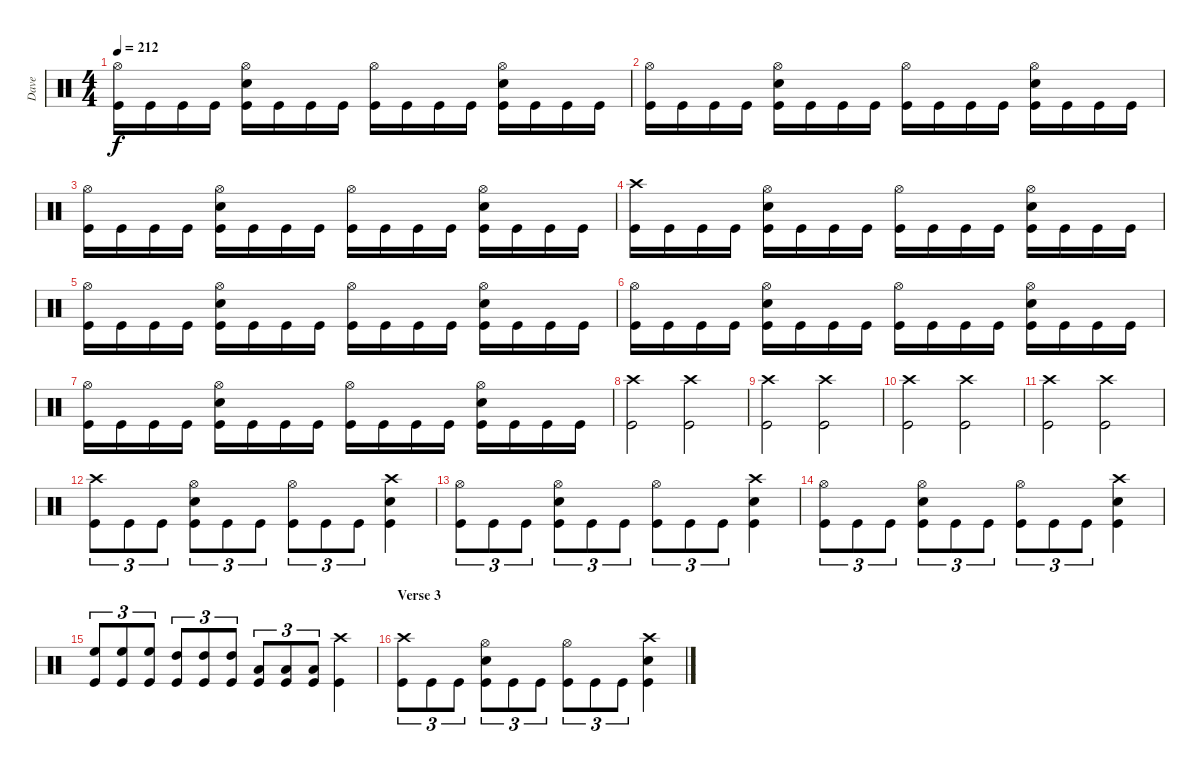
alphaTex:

\track ("Dave" "Dave") {instrument percussion}
\staff {score}
\articulation defaults
\ts (4 4)
\tempo 212
\clef neutral
\ks c
("Hi-Hat (open)" "Kick (hit)").16{dy f} "Kick (hit)".16 "Kick (hit)".16 "Kick (hit)".16 ("Hi-Hat (open)" "Snare (hit) 2" "Kick (hit)").16 "Kick (hit)".16 "Kick (hit)".16 "Kick (hit)".16 ("Hi-Hat (open)" "Kick (hit)").16 "Kick (hit)".16 "Kick (hit)".16 "Kick (hit)".16 ("Hi-Hat (open)" "Snare (hit) 2" "Kick (hit)").16 "Kick (hit)".16 "Kick (hit)".16 "Kick (hit)".16 |
("Hi-Hat (open)" "Kick (hit)").16 "Kick (hit)".16 "Kick (hit)".16 "Kick (hit)".16 ("Hi-Hat (open)" "Snare (hit) 2" "Kick (hit)").16 "Kick (hit)".16 "Kick (hit)".16 "Kick (hit)".16 ("Hi-Hat (open)" "Kick (hit)").16 "Kick (hit)".16 "Kick (hit)".16 "Kick (hit)".16 ("Hi-Hat (open)" "Snare (hit) 2" "Kick (hit)").16 "Kick (hit)".16 "Kick (hit)".16 "Kick (hit)".16 |
("Hi-Hat (open)" "Kick (hit)").16 "Kick (hit)".16 "Kick (hit)".16 "Kick (hit)".16 ("Hi-Hat (open)" "Snare (hit) 2" "Kick (hit)").16 "Kick (hit)".16 "Kick (hit)".16 "Kick (hit)".16 ("Hi-Hat (open)" "Kick (hit)").16 "Kick (hit)".16 "Kick (hit)".16 "Kick (hit)".16 ("Hi-Hat (open)" "Snare (hit) 2" "Kick (hit)").16 "Kick (hit)".16 "Kick (hit)".16 "Kick (hit)".16 |
("Crash high (hit)" "Kick (hit)").16 "Kick (hit)".16 "Kick (hit)".16 "Kick (hit)".16 ("Hi-Hat (open)" "Snare (hit) 2" "Kick (hit)").16 "Kick (hit)".16 "Kick (hit)".16 "Kick (hit)".16 ("Hi-Hat (open)" "Kick (hit)").16 "Kick (hit)".16 "Kick (hit)".16 "Kick (hit)".16 ("Hi-Hat (open)" "Snare (hit) 2" "Kick (hit)").16 "Kick (hit)".16 "Kick (hit)".16 "Kick (hit)".16 |
("Hi-Hat (open)" "Kick (hit)").16 "Kick (hit)".16 "Kick (hit)".16 "Kick (hit)".16 ("Hi-Hat (open)" "Snare (hit) 2" "Kick (hit)").16 "Kick (hit)".16 "Kick (hit)".16 "Kick (hit)".16 ("Hi-Hat (open)" "Kick (hit)").16 "Kick (hit)".16 "Kick (hit)".16 "Kick (hit)".16 ("Hi-Hat (open)" "Snare (hit) 2" "Kick (hit)").16 "Kick (hit)".16 "Kick (hit)".16 "Kick (hit)".16 |
("Hi-Hat (open)" "Kick (hit)").16 "Kick (hit)".16 "Kick (hit)".16 "Kick (hit)".16 ("Hi-Hat (open)" "Snare (hit) 2" "Kick (hit)").16 "Kick (hit)".16 "Kick (hit)".16 "Kick (hit)".16 ("Hi-Hat (open)" "Kick (hit)").16 "Kick (hit)".16 "Kick (hit)".16 "Kick (hit)".16 ("Hi-Hat (open)" "Snare (hit) 2" "Kick (hit)").16 "Kick (hit)".16 "Kick (hit)".16 "Kick (hit)".16 |
("Hi-Hat (open)" "Kick (hit)").16 "Kick (hit)".16 "Kick (hit)".16 "Kick (hit)".16 ("Hi-Hat (open)" "Snare (hit) 2" "Kick (hit)").16 "Kick (hit)".16 "Kick (hit)".16 "Kick (hit)".16 ("Hi-Hat (open)" "Kick (hit)").16 "Kick (hit)".16 "Kick (hit)".16 "Kick (hit)".16 ("Hi-Hat (open)" "Snare (hit) 2" "Kick (hit)").16 "Kick (hit)".16 "Kick (hit)".16 "Kick (hit)".16 |
("Crash high (hit)" "Kick (hit)").2 ("Crash high (hit)" "Kick (hit)").2 |
("Crash high (hit)" "Kick (hit)").2 ("Crash high (hit)" "Kick (hit)").2 |
("Crash high (hit)" "Kick (hit)").2 ("Crash high (hit)" "Kick (hit)").2 |
("Crash high (hit)" "Kick (hit)").2 ("Crash high (hit)" "Kick (hit)").2 |
("Crash high (hit)" "Kick (hit)").8{tu (3 2)} "Kick (hit)".8{tu (3 2)} "Kick (hit)".8{tu (3 2)} ("Hi-Hat (open)" "Snare (hit) 2" "Kick (hit)").8{tu (3 2)} "Kick (hit)".8{tu (3 2)} "Kick (hit)".8{tu (3 2)} ("Hi-Hat (open)" "Kick (hit)").8{tu (3 2)} "Kick (hit)".8{tu (3 2)} "Kick (hit)".8{tu (3 2)} ("Crash high (hit)" "Snare (hit) 2" "Kick (hit)").4 |
("Hi-Hat (open)" "Kick (hit)").8{tu (3 2)} "Kick (hit)".8{tu (3 2)} "Kick (hit)".8{tu (3 2)} ("Hi-Hat (open)" "Snare (hit) 2" "Kick (hit)").8{tu (3 2)} "Kick (hit)".8{tu (3 2)} "Kick (hit)".8{tu (3 2)} ("Hi-Hat (open)" "Kick (hit)").8{tu (3 2)} "Kick (hit)".8{tu (3 2)} "Kick (hit)".8{tu (3 2)} ("Crash high (hit)" "Snare (hit) 2" "Kick (hit)").4 |
("Hi-Hat (open)" "Kick (hit)").8{tu (3 2)} "Kick (hit)".8{tu (3 2)} "Kick (hit)".8{tu (3 2)} ("Hi-Hat (open)" "Snare (hit) 2" "Kick (hit)").8{tu (3 2)} "Kick (hit)".8{tu (3 2)} "Kick (hit)".8{tu (3 2)} ("Hi-Hat (open)" "Kick (hit)").8{tu (3 2)} "Kick (hit)".8{tu (3 2)} "Kick (hit)".8{tu (3 2)} ("Crash high (hit)" "Snare (hit) 2" "Kick (hit)").4 |
("High Floor Tom (hit)" "Kick (hit)").8{tu (3 2)} ("High Floor Tom (hit)" "Kick (hit)").8{tu (3 2)} ("High Floor Tom (hit)" "Kick (hit)").8{tu (3 2)} ("High Tom (hit)" "Kick (hit)").8{tu (3 2)} ("High Tom (hit)" "Kick (hit)").8{tu (3 2)} ("High Tom (hit)" "Kick (hit)").8{tu (3 2)} ("Low Tom (hit)" "Kick (hit)").8{tu (3 2)} ("Low Tom (hit)" "Kick (hit)").8{tu (3 2)} ("Low Tom (hit)" "Kick (hit)").8{tu (3 2)} ("Crash high (hit)" "Kick (hit)").4 |
\section ("" "Verse 3")
("Crash high (hit)" "Kick (hit)").8{tu (3 2)} "Kick (hit)".8{tu (3 2)} "Kick (hit)".8{tu (3 2)} ("Hi-Hat (open)" "Snare (hit) 2" "Kick (hit)").8{tu (3 2)} "Kick (hit)".8{tu (3 2)} "Kick (hit)".8{tu (3 2)} ("Hi-Hat (open)" "Kick (hit)").8{tu (3 2)} "Kick (hit)".8{tu (3 2)} "Kick (hit)".8{tu (3 2)} ("Crash high (hit)" "Snare (hit) 2" "Kick (hit)").4
